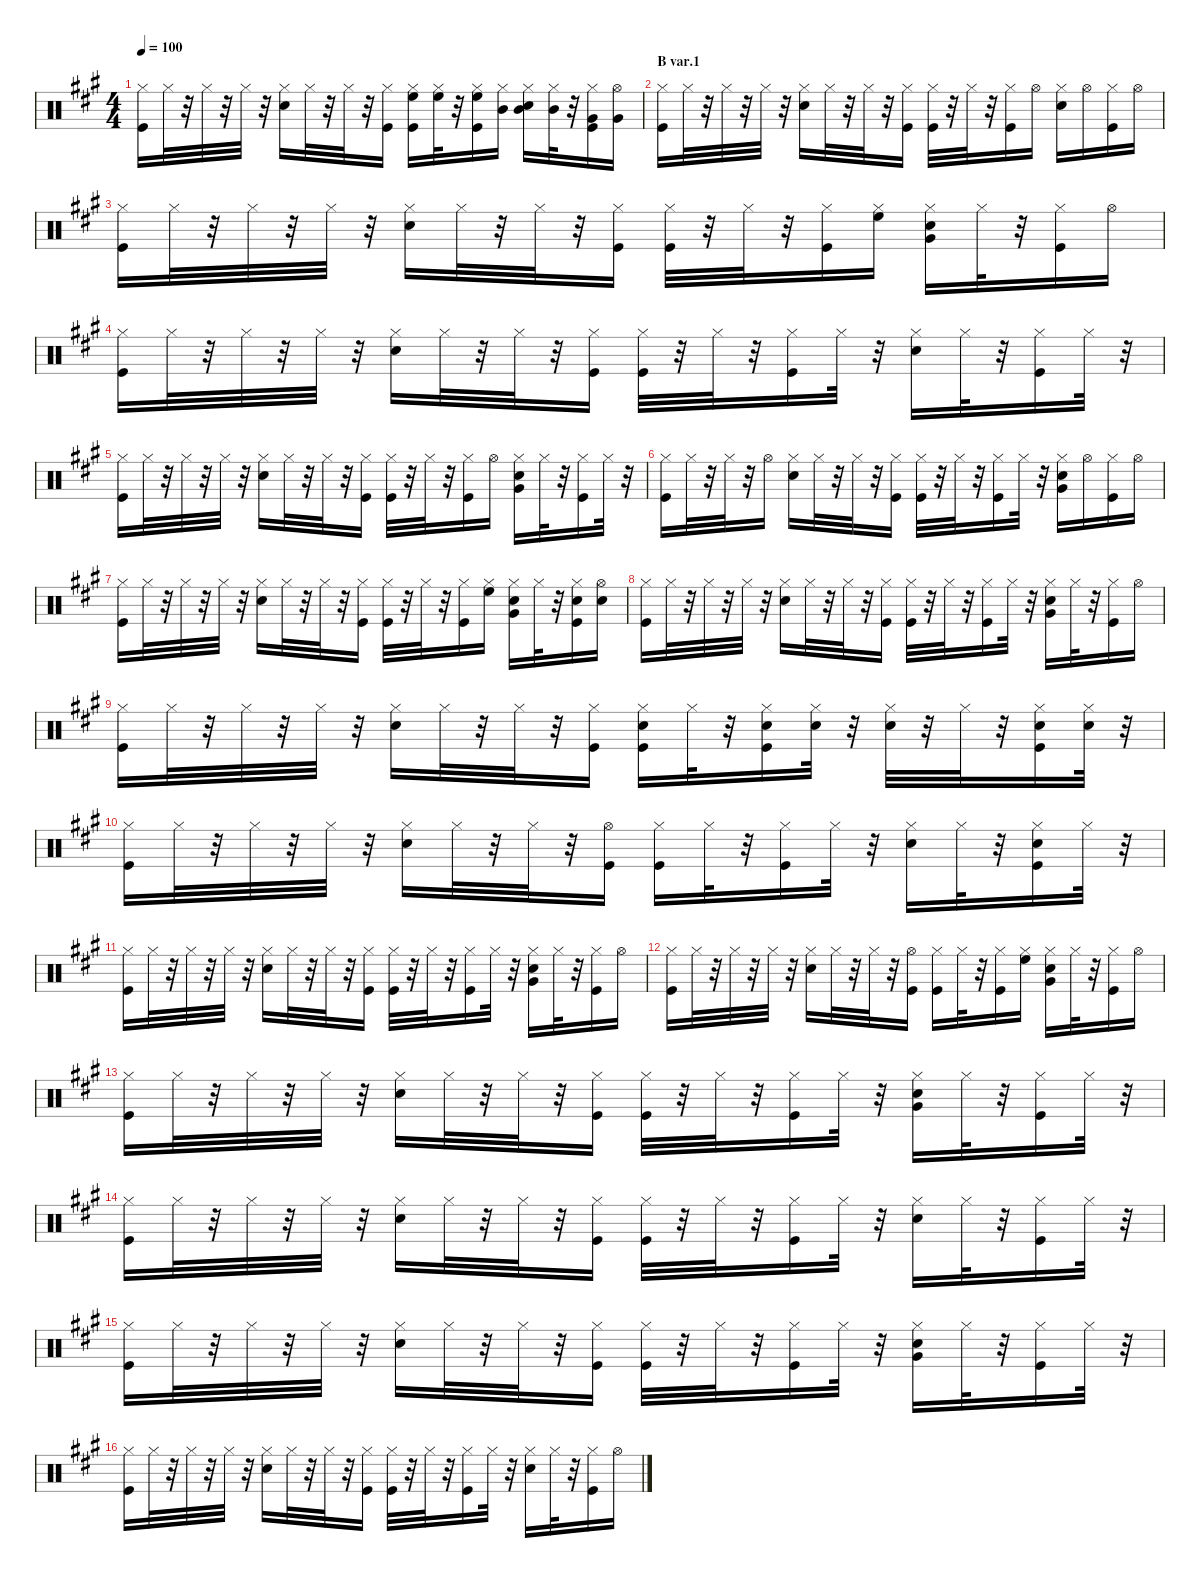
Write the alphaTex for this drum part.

\defaultSystemsLayout 4
\hideDynamics
\bracketExtendMode nobrackets
\singleTrackTrackNamePolicy hidden
\multiTrackTrackNamePolicy hidden
\otherSystemsTrackNameOrientation horizontal
\track ("Percussion" "drm.") {instrument percussion}
\staff {score}
\articulation defaults
\ts (4 4)
\tempo 100
\clef neutral
\ks a
("Kick (hit)"{acc forcenatural} "Hi-Hat (closed)"{acc forcenatural}).16{dy f beam Down} "Hi-Hat (closed)"{acc forcenatural}.32{dy mp beam Down} r.32{beam Down} "Hi-Hat (closed)"{acc forcenatural}.32{dy f beam Down} r.32{beam Down} "Hi-Hat (closed)"{acc forcenatural}.32{beam Down} r.32{beam Down} ("Snare (hit) 2"{acc forcenatural} "Hi-Hat (closed)"{acc forcenatural}).16{dy fff beam Down} "Hi-Hat (closed)"{acc forcenatural}.32{dy mp beam Down} r.32{beam Down} "Hi-Hat (closed)"{acc forcenatural}.32{dy f beam Down} r.32{beam Down} ("Kick (hit)"{acc forcenatural} "Hi-Hat (closed)"{acc forcenatural}).16{dy mf beam Down} ("Kick (hit)"{acc forcenatural} "Hi-Hat (closed)"{acc forcenatural} "High Floor Tom (hit)"{acc forcenatural}).16{dy f beam Down} ("Hi-Hat (closed)"{acc forcenatural} "High Floor Tom (hit)"{acc forcenatural}).32{dy mp beam Down} r.32{beam Down} ("Kick (hit)"{acc forcenatural} "Hi-Hat (closed)"{acc forcenatural} "High Floor Tom (hit)"{acc forcenatural}).16{dy f beam Down} ("Hi-Hat (closed)"{acc forcenatural} "Mid Tom (hit)"{acc forcenatural}).16{beam Down} ("Snare (hit) 2"{acc forcenatural} "Hi-Hat (closed)"{acc forcenatural} "Mid Tom (hit)"{acc forcenatural}).16{dy fff beam Down} ("Hi-Hat (closed)"{acc forcenatural} "Mid Tom (hit)"{acc forcenatural}).32{dy mp beam Down} r.32{beam Down} ("Kick (hit)"{acc forcenatural} "Hi-Hat (closed)"{acc forcenatural} "Very Low Tom (hit)"{acc forcenatural}).16{dy f beam Down} ("Very Low Tom (hit)"{acc forcenatural} "Hi-Hat (open)"{acc forcenatural}).16{beam Down} |
\section ("" "B var.1")
("Kick (hit)"{acc forcenatural} "Hi-Hat (closed)"{acc forcenatural}).16{beam Down} "Hi-Hat (closed)"{acc forcenatural}.32{dy mp beam Down} r.32{beam Down} "Hi-Hat (closed)"{acc forcenatural}.32{dy f beam Down} r.32{beam Down} "Hi-Hat (closed)"{acc forcenatural}.32{beam Down} r.32{beam Down} ("Snare (hit) 2"{acc forcenatural} "Hi-Hat (closed)"{acc forcenatural}).16{dy fff beam Down} "Hi-Hat (closed)"{acc forcenatural}.32{dy mp beam Down} r.32{beam Down} "Hi-Hat (closed)"{acc forcenatural}.32{dy f beam Down} r.32{beam Down} ("Kick (hit)"{acc forcenatural} "Hi-Hat (closed)"{acc forcenatural}).16{dy mf beam Down} ("Kick (hit)"{acc forcenatural} "Hi-Hat (closed)"{acc forcenatural}).32{dy f beam Down} r.32{beam Down} "Hi-Hat (closed)"{acc forcenatural}.32{dy mp beam Down} r.32{beam Down} ("Kick (hit)"{acc forcenatural} "Hi-Hat (closed)"{acc forcenatural}).16{dy f beam Down} "Hi-Hat (open)"{acc forcenatural}.16{beam Down} ("Snare (hit) 2"{acc forcenatural} "Hi-Hat (closed)"{acc forcenatural}).16{dy fff beam Down} "Hi-Hat (open)"{acc forcenatural}.16{dy mp beam Down} ("Kick (hit)"{acc forcenatural} "Hi-Hat (closed)"{acc forcenatural}).16{dy f beam Down} "Hi-Hat (open)"{acc forcenatural}.16{beam Down} |
("Kick (hit)"{acc forcenatural} "Hi-Hat (closed)"{acc forcenatural}).16{beam Down} "Hi-Hat (closed)"{acc forcenatural}.32{dy mp beam Down} r.32{beam Down} "Hi-Hat (closed)"{acc forcenatural}.32{dy f beam Down} r.32{beam Down} "Hi-Hat (closed)"{acc forcenatural}.32{beam Down} r.32{beam Down} ("Snare (hit) 2"{acc forcenatural} "Hi-Hat (closed)"{acc forcenatural}).16{dy fff beam Down} "Hi-Hat (closed)"{acc forcenatural}.32{dy mp beam Down} r.32{beam Down} "Hi-Hat (closed)"{acc forcenatural}.32{dy f beam Down} r.32{beam Down} ("Kick (hit)"{acc forcenatural} "Hi-Hat (closed)"{acc forcenatural}).16{dy mf beam Down} ("Kick (hit)"{acc forcenatural} "Hi-Hat (closed)"{acc forcenatural}).32{dy f beam Down} r.32{beam Down} "Hi-Hat (closed)"{acc forcenatural}.32{dy mp beam Down} r.32{beam Down} ("Kick (hit)"{acc forcenatural} "Hi-Hat (closed)"{acc forcenatural}).16{dy f beam Down} ("Hi-Hat (closed)"{acc forcenatural} "High Floor Tom (hit)"{acc forcenatural}).16{beam Down} ("Snare (hit) 2"{acc forcenatural} "Hi-Hat (closed)"{acc forcenatural} "Very Low Tom (hit)"{acc forcenatural}).16{dy fff beam Down} "Hi-Hat (closed)"{acc forcenatural}.32{dy mp beam Down} r.32{beam Down} ("Kick (hit)"{acc forcenatural} "Hi-Hat (closed)"{acc forcenatural}).16{dy f beam Down} "Hi-Hat (open)"{acc forcenatural}.16{beam Down} |
("Kick (hit)"{acc forcenatural} "Hi-Hat (closed)"{acc forcenatural}).16{beam Down} "Hi-Hat (closed)"{acc forcenatural}.32{dy mp beam Down} r.32{beam Down} "Hi-Hat (closed)"{acc forcenatural}.32{dy f beam Down} r.32{beam Down} "Hi-Hat (closed)"{acc forcenatural}.32{beam Down} r.32{beam Down} ("Snare (hit) 2"{acc forcenatural} "Hi-Hat (closed)"{acc forcenatural}).16{dy fff beam Down} "Hi-Hat (closed)"{acc forcenatural}.32{dy mp beam Down} r.32{beam Down} "Hi-Hat (closed)"{acc forcenatural}.32{dy f beam Down} r.32{beam Down} ("Kick (hit)"{acc forcenatural} "Hi-Hat (closed)"{acc forcenatural}).16{dy mf beam Down} ("Kick (hit)"{acc forcenatural} "Hi-Hat (closed)"{acc forcenatural}).32{dy f beam Down} r.32{beam Down} "Hi-Hat (closed)"{acc forcenatural}.32{dy mp beam Down} r.32{beam Down} ("Kick (hit)"{acc forcenatural} "Hi-Hat (closed)"{acc forcenatural}).16{dy f beam Down} "Hi-Hat (closed)"{acc forcenatural}.32{beam Down} r.32{beam Down} ("Snare (hit) 2"{acc forcenatural} "Hi-Hat (closed)"{acc forcenatural}).16{dy fff beam Down} "Hi-Hat (closed)"{acc forcenatural}.32{dy mp beam Down} r.32{beam Down} ("Kick (hit)"{acc forcenatural} "Hi-Hat (closed)"{acc forcenatural}).16{dy f beam Down} "Hi-Hat (closed)"{acc forcenatural}.32{beam Down} r.32{beam Down} |
("Kick (hit)"{acc forcenatural} "Hi-Hat (closed)"{acc forcenatural}).16{beam Down} "Hi-Hat (closed)"{acc forcenatural}.32{dy mp beam Down} r.32{beam Down} "Hi-Hat (closed)"{acc forcenatural}.32{dy f beam Down} r.32{beam Down} "Hi-Hat (closed)"{acc forcenatural}.32{beam Down} r.32{beam Down} ("Snare (hit) 2"{acc forcenatural} "Hi-Hat (closed)"{acc forcenatural}).16{dy fff beam Down} "Hi-Hat (closed)"{acc forcenatural}.32{dy mp beam Down} r.32{beam Down} "Hi-Hat (closed)"{acc forcenatural}.32{dy f beam Down} r.32{beam Down} ("Kick (hit)"{acc forcenatural} "Hi-Hat (closed)"{acc forcenatural}).16{dy mf beam Down} ("Kick (hit)"{acc forcenatural} "Hi-Hat (closed)"{acc forcenatural}).32{dy f beam Down} r.32{beam Down} "Hi-Hat (closed)"{acc forcenatural}.32{dy mp beam Down} r.32{beam Down} ("Kick (hit)"{acc forcenatural} "Hi-Hat (closed)"{acc forcenatural}).16{dy f beam Down} "Hi-Hat (open)"{acc forcenatural}.16{beam Down} ("Snare (hit) 2"{acc forcenatural} "Hi-Hat (closed)"{acc forcenatural} "Very Low Tom (hit)"{acc forcenatural}).16{dy fff beam Down} "Hi-Hat (closed)"{acc forcenatural}.32{dy mp beam Down} r.32{beam Down} ("Kick (hit)"{acc forcenatural} "Hi-Hat (closed)"{acc forcenatural}).16{dy f beam Down} "Hi-Hat (closed)"{acc forcenatural}.32{beam Down} r.32{beam Down} |
("Kick (hit)"{acc forcenatural} "Hi-Hat (closed)"{acc forcenatural}).16{beam Down} "Hi-Hat (closed)"{acc forcenatural}.32{dy mp beam Down} r.32{beam Down} "Hi-Hat (closed)"{acc forcenatural}.32{dy f beam Down} r.32{beam Down} "Hi-Hat (open)"{acc forcenatural}.16{beam Down} ("Snare (hit) 2"{acc forcenatural} "Hi-Hat (closed)"{acc forcenatural}).16{dy fff beam Down} "Hi-Hat (closed)"{acc forcenatural}.32{dy mp beam Down} r.32{beam Down} "Hi-Hat (closed)"{acc forcenatural}.32{dy f beam Down} r.32{beam Down} ("Kick (hit)"{acc forcenatural} "Hi-Hat (closed)"{acc forcenatural}).16{dy mf beam Down} ("Kick (hit)"{acc forcenatural} "Hi-Hat (closed)"{acc forcenatural}).32{dy f beam Down} r.32{beam Down} "Hi-Hat (closed)"{acc forcenatural}.32{dy mp beam Down} r.32{beam Down} ("Kick (hit)"{acc forcenatural} "Hi-Hat (closed)"{acc forcenatural}).16{dy f beam Down} "Hi-Hat (closed)"{acc forcenatural}.32{beam Down} r.32{beam Down} ("Snare (hit) 2"{acc forcenatural} "Hi-Hat (closed)"{acc forcenatural} "Very Low Tom (hit)"{acc forcenatural}).16{dy fff beam Down} "Hi-Hat (open)"{acc forcenatural}.16{dy mp beam Down} ("Kick (hit)"{acc forcenatural} "Hi-Hat (closed)"{acc forcenatural}).16{dy f beam Down} "Hi-Hat (open)"{acc forcenatural}.16{beam Down} |
("Kick (hit)"{acc forcenatural} "Hi-Hat (closed)"{acc forcenatural}).16{beam Down} "Hi-Hat (closed)"{acc forcenatural}.32{dy mp beam Down} r.32{beam Down} "Hi-Hat (closed)"{acc forcenatural}.32{dy f beam Down} r.32{beam Down} "Hi-Hat (closed)"{acc forcenatural}.32{beam Down} r.32{beam Down} ("Snare (hit) 2"{acc forcenatural} "Hi-Hat (closed)"{acc forcenatural}).16{dy fff beam Down} "Hi-Hat (closed)"{acc forcenatural}.32{dy mp beam Down} r.32{beam Down} "Hi-Hat (closed)"{acc forcenatural}.32{dy f beam Down} r.32{beam Down} ("Kick (hit)"{acc forcenatural} "Hi-Hat (closed)"{acc forcenatural}).16{dy mf beam Down} ("Kick (hit)"{acc forcenatural} "Hi-Hat (closed)"{acc forcenatural}).32{dy f beam Down} r.32{beam Down} "Hi-Hat (closed)"{acc forcenatural}.32{dy mp beam Down} r.32{beam Down} ("Kick (hit)"{acc forcenatural} "Hi-Hat (closed)"{acc forcenatural}).16{dy f beam Down} ("Hi-Hat (closed)"{acc forcenatural} "High Floor Tom (hit)"{acc forcenatural}).16{beam Down} ("Snare (hit) 2"{acc forcenatural} "Hi-Hat (closed)"{acc forcenatural} "Very Low Tom (hit)"{acc forcenatural}).16{dy fff beam Down} "Hi-Hat (closed)"{acc forcenatural}.32{dy mp beam Down} r.32{beam Down} ("Kick (hit)"{acc forcenatural} "Snare (hit) 2"{acc forcenatural} "Hi-Hat (closed)"{acc forcenatural}).16{dy f beam Down} ("Snare (hit) 2"{acc forcenatural} "Hi-Hat (open)"{acc forcenatural}).16{beam Down} |
("Kick (hit)"{acc forcenatural} "Hi-Hat (closed)"{acc forcenatural}).16{beam Down} "Hi-Hat (closed)"{acc forcenatural}.32{dy mp beam Down} r.32{beam Down} "Hi-Hat (closed)"{acc forcenatural}.32{dy f beam Down} r.32{beam Down} "Hi-Hat (closed)"{acc forcenatural}.32{beam Down} r.32{beam Down} ("Snare (hit) 2"{acc forcenatural} "Hi-Hat (closed)"{acc forcenatural}).16{dy fff beam Down} "Hi-Hat (closed)"{acc forcenatural}.32{dy mp beam Down} r.32{beam Down} "Hi-Hat (closed)"{acc forcenatural}.32{dy f beam Down} r.32{beam Down} ("Kick (hit)"{acc forcenatural} "Hi-Hat (closed)"{acc forcenatural}).16{dy mf beam Down} ("Kick (hit)"{acc forcenatural} "Hi-Hat (closed)"{acc forcenatural}).32{dy f beam Down} r.32{beam Down} "Hi-Hat (closed)"{acc forcenatural}.32{dy mp beam Down} r.32{beam Down} ("Kick (hit)"{acc forcenatural} "Hi-Hat (closed)"{acc forcenatural}).16{dy f beam Down} "Hi-Hat (closed)"{acc forcenatural}.32{beam Down} r.32{beam Down} ("Snare (hit) 2"{acc forcenatural} "Hi-Hat (closed)"{acc forcenatural} "Very Low Tom (hit)"{acc forcenatural}).16{dy fff beam Down} "Hi-Hat (closed)"{acc forcenatural}.32{dy mp beam Down} r.32{beam Down} ("Kick (hit)"{acc forcenatural} "Hi-Hat (closed)"{acc forcenatural}).16{dy f beam Down} "Hi-Hat (open)"{acc forcenatural}.16{beam Down} |
("Kick (hit)"{acc forcenatural} "Hi-Hat (closed)"{acc forcenatural}).16{beam Down} "Hi-Hat (closed)"{acc forcenatural}.32{dy mp beam Down} r.32{beam Down} "Hi-Hat (closed)"{acc forcenatural}.32{dy f beam Down} r.32{beam Down} "Hi-Hat (closed)"{acc forcenatural}.32{beam Down} r.32{beam Down} ("Snare (hit) 2"{acc forcenatural} "Hi-Hat (closed)"{acc forcenatural}).16{dy fff beam Down} "Hi-Hat (closed)"{acc forcenatural}.32{dy mp beam Down} r.32{beam Down} "Hi-Hat (closed)"{acc forcenatural}.32{dy f beam Down} r.32{beam Down} ("Kick (hit)"{acc forcenatural} "Hi-Hat (closed)"{acc forcenatural}).16{dy mf beam Down} ("Kick (hit)"{acc forcenatural} "Snare (hit) 2"{acc forcenatural} "Hi-Hat (closed)"{acc forcenatural}).16{dy f beam Down} "Hi-Hat (closed)"{acc forcenatural}.32{dy mp beam Down} r.32{beam Down} ("Kick (hit)"{acc forcenatural} "Snare (hit) 2"{acc forcenatural} "Hi-Hat (closed)"{acc forcenatural}).16{dy f beam Down} ("Snare (hit) 2"{acc forcenatural} "Hi-Hat (closed)"{acc forcenatural}).32{beam Down} r.32{beam Down} ("Snare (hit) 2"{acc forcenatural} "Hi-Hat (closed)"{acc forcenatural}).32{dy fff beam Down} r.32{beam Down} "Hi-Hat (closed)"{acc forcenatural}.32{dy mp beam Down} r.32{beam Down} ("Kick (hit)"{acc forcenatural} "Snare (hit) 2"{acc forcenatural} "Hi-Hat (closed)"{acc forcenatural}).16{dy f beam Down} ("Snare (hit) 2"{acc forcenatural} "Hi-Hat (closed)"{acc forcenatural}).32{dy ff beam Down} r.32{beam Down} |
("Kick (hit)"{acc forcenatural} "Hi-Hat (closed)"{acc forcenatural}).16{dy f beam Down} "Hi-Hat (closed)"{acc forcenatural}.32{dy mp beam Down} r.32{beam Down} "Hi-Hat (closed)"{acc forcenatural}.32{dy f beam Down} r.32{beam Down} "Hi-Hat (closed)"{acc forcenatural}.32{beam Down} r.32{beam Down} ("Snare (hit) 2"{acc forcenatural} "Hi-Hat (closed)"{acc forcenatural}).16{dy fff beam Down} "Hi-Hat (closed)"{acc forcenatural}.32{dy mp beam Down} r.32{beam Down} "Hi-Hat (closed)"{acc forcenatural}.32{dy f beam Down} r.32{beam Down} ("Kick (hit)"{acc forcenatural} "Hi-Hat (open)"{acc forcenatural}).16{dy mf beam Down} ("Kick (hit)"{acc forcenatural} "Hi-Hat (closed)"{acc forcenatural}).16{dy f beam Down} "Hi-Hat (closed)"{acc forcenatural}.32{dy mp beam Down} r.32{beam Down} ("Kick (hit)"{acc forcenatural} "Hi-Hat (closed)"{acc forcenatural}).16{dy f beam Down} "Hi-Hat (closed)"{acc forcenatural}.32{beam Down} r.32{beam Down} ("Snare (hit) 2"{acc forcenatural} "Hi-Hat (closed)"{acc forcenatural}).16{dy fff beam Down} "Hi-Hat (closed)"{acc forcenatural}.32{dy mp beam Down} r.32{beam Down} ("Kick (hit)"{acc forcenatural} "Snare (hit) 2"{acc forcenatural} "Hi-Hat (closed)"{acc forcenatural}).16{dy f beam Down} "Hi-Hat (closed)"{acc forcenatural}.32{beam Down} r.32{beam Down} |
("Kick (hit)"{acc forcenatural} "Hi-Hat (closed)"{acc forcenatural}).16{beam Down} "Hi-Hat (closed)"{acc forcenatural}.32{dy mp beam Down} r.32{beam Down} "Hi-Hat (closed)"{acc forcenatural}.32{dy f beam Down} r.32{beam Down} "Hi-Hat (closed)"{acc forcenatural}.32{beam Down} r.32{beam Down} ("Snare (hit) 2"{acc forcenatural} "Hi-Hat (closed)"{acc forcenatural}).16{dy fff beam Down} "Hi-Hat (closed)"{acc forcenatural}.32{dy mp beam Down} r.32{beam Down} "Hi-Hat (closed)"{acc forcenatural}.32{dy f beam Down} r.32{beam Down} ("Kick (hit)"{acc forcenatural} "Hi-Hat (closed)"{acc forcenatural}).16{dy mf beam Down} ("Kick (hit)"{acc forcenatural} "Hi-Hat (closed)"{acc forcenatural}).32{dy f beam Down} r.32{beam Down} "Hi-Hat (closed)"{acc forcenatural}.32{dy mp beam Down} r.32{beam Down} ("Kick (hit)"{acc forcenatural} "Hi-Hat (closed)"{acc forcenatural}).16{dy f beam Down} "Hi-Hat (closed)"{acc forcenatural}.32{beam Down} r.32{beam Down} ("Snare (hit) 2"{acc forcenatural} "Hi-Hat (closed)"{acc forcenatural} "Very Low Tom (hit)"{acc forcenatural}).16{dy fff beam Down} "Hi-Hat (closed)"{acc forcenatural}.32{dy mp beam Down} r.32{beam Down} ("Kick (hit)"{acc forcenatural} "Hi-Hat (closed)"{acc forcenatural}).16{dy f beam Down} "Hi-Hat (open)"{acc forcenatural}.16{beam Down} |
("Kick (hit)"{acc forcenatural} "Hi-Hat (closed)"{acc forcenatural}).16{beam Down} "Hi-Hat (closed)"{acc forcenatural}.32{dy mp beam Down} r.32{beam Down} "Hi-Hat (closed)"{acc forcenatural}.32{dy f beam Down} r.32{beam Down} "Hi-Hat (closed)"{acc forcenatural}.32{beam Down} r.32{beam Down} ("Snare (hit) 2"{acc forcenatural} "Hi-Hat (closed)"{acc forcenatural}).16{dy fff beam Down} "Hi-Hat (closed)"{acc forcenatural}.32{dy mp beam Down} r.32{beam Down} "Hi-Hat (closed)"{acc forcenatural}.32{dy f beam Down} r.32{beam Down} ("Kick (hit)"{acc forcenatural} "Hi-Hat (open)"{acc forcenatural}).16{dy mf beam Down} ("Kick (hit)"{acc forcenatural} "Hi-Hat (closed)"{acc forcenatural}).16{dy f beam Down} "Hi-Hat (closed)"{acc forcenatural}.32{dy mp beam Down} r.32{beam Down} ("Kick (hit)"{acc forcenatural} "Hi-Hat (closed)"{acc forcenatural}).16{dy f beam Down} ("Hi-Hat (closed)"{acc forcenatural} "High Floor Tom (hit)"{acc forcenatural}).16{beam Down} ("Snare (hit) 2"{acc forcenatural} "Hi-Hat (closed)"{acc forcenatural} "Very Low Tom (hit)"{acc forcenatural}).16{dy fff beam Down} "Hi-Hat (closed)"{acc forcenatural}.32{dy mp beam Down} r.32{beam Down} ("Kick (hit)"{acc forcenatural} "Hi-Hat (closed)"{acc forcenatural}).16{dy f beam Down} "Hi-Hat (open)"{acc forcenatural}.16{beam Down} |
("Kick (hit)"{acc forcenatural} "Hi-Hat (closed)"{acc forcenatural}).16{beam Down} "Hi-Hat (closed)"{acc forcenatural}.32{dy mp beam Down} r.32{beam Down} "Hi-Hat (closed)"{acc forcenatural}.32{dy f beam Down} r.32{beam Down} "Hi-Hat (closed)"{acc forcenatural}.32{beam Down} r.32{beam Down} ("Snare (hit) 2"{acc forcenatural} "Hi-Hat (closed)"{acc forcenatural}).16{dy fff beam Down} "Hi-Hat (closed)"{acc forcenatural}.32{dy mp beam Down} r.32{beam Down} "Hi-Hat (closed)"{acc forcenatural}.32{dy f beam Down} r.32{beam Down} ("Kick (hit)"{acc forcenatural} "Hi-Hat (closed)"{acc forcenatural}).16{dy mf beam Down} ("Kick (hit)"{acc forcenatural} "Hi-Hat (closed)"{acc forcenatural}).32{dy f beam Down} r.32{beam Down} "Hi-Hat (closed)"{acc forcenatural}.32{dy mp beam Down} r.32{beam Down} ("Kick (hit)"{acc forcenatural} "Hi-Hat (closed)"{acc forcenatural}).16{dy f beam Down} "Hi-Hat (closed)"{acc forcenatural}.32{beam Down} r.32{beam Down} ("Snare (hit) 2"{acc forcenatural} "Hi-Hat (closed)"{acc forcenatural} "Very Low Tom (hit)"{acc forcenatural}).16{dy fff beam Down} "Hi-Hat (closed)"{acc forcenatural}.32{dy mp beam Down} r.32{beam Down} ("Kick (hit)"{acc forcenatural} "Hi-Hat (closed)"{acc forcenatural}).16{dy f beam Down} "Hi-Hat (closed)"{acc forcenatural}.32{beam Down} r.32{beam Down} |
("Kick (hit)"{acc forcenatural} "Hi-Hat (closed)"{acc forcenatural}).16{beam Down} "Hi-Hat (closed)"{acc forcenatural}.32{dy mp beam Down} r.32{beam Down} "Hi-Hat (closed)"{acc forcenatural}.32{dy f beam Down} r.32{beam Down} "Hi-Hat (closed)"{acc forcenatural}.32{beam Down} r.32{beam Down} ("Snare (hit) 2"{acc forcenatural} "Hi-Hat (closed)"{acc forcenatural}).16{dy fff beam Down} "Hi-Hat (closed)"{acc forcenatural}.32{dy mp beam Down} r.32{beam Down} "Hi-Hat (closed)"{acc forcenatural}.32{dy f beam Down} r.32{beam Down} ("Kick (hit)"{acc forcenatural} "Hi-Hat (closed)"{acc forcenatural}).16{dy mf beam Down} ("Kick (hit)"{acc forcenatural} "Hi-Hat (closed)"{acc forcenatural}).32{dy f beam Down} r.32{beam Down} "Hi-Hat (closed)"{acc forcenatural}.32{dy mp beam Down} r.32{beam Down} ("Kick (hit)"{acc forcenatural} "Hi-Hat (closed)"{acc forcenatural}).16{dy f beam Down} "Hi-Hat (closed)"{acc forcenatural}.32{beam Down} r.32{beam Down} ("Snare (hit) 2"{acc forcenatural} "Hi-Hat (closed)"{acc forcenatural}).16{dy fff beam Down} "Hi-Hat (closed)"{acc forcenatural}.32{dy mp beam Down} r.32{beam Down} ("Kick (hit)"{acc forcenatural} "Hi-Hat (closed)"{acc forcenatural}).16{dy f beam Down} "Hi-Hat (closed)"{acc forcenatural}.32{beam Down} r.32{beam Down} |
("Kick (hit)"{acc forcenatural} "Hi-Hat (closed)"{acc forcenatural}).16{beam Down} "Hi-Hat (closed)"{acc forcenatural}.32{dy mp beam Down} r.32{beam Down} "Hi-Hat (closed)"{acc forcenatural}.32{dy f beam Down} r.32{beam Down} "Hi-Hat (closed)"{acc forcenatural}.32{beam Down} r.32{beam Down} ("Snare (hit) 2"{acc forcenatural} "Hi-Hat (closed)"{acc forcenatural}).16{dy fff beam Down} "Hi-Hat (closed)"{acc forcenatural}.32{dy mp beam Down} r.32{beam Down} "Hi-Hat (closed)"{acc forcenatural}.32{dy f beam Down} r.32{beam Down} ("Kick (hit)"{acc forcenatural} "Hi-Hat (closed)"{acc forcenatural}).16{dy mf beam Down} ("Kick (hit)"{acc forcenatural} "Hi-Hat (closed)"{acc forcenatural}).32{dy f beam Down} r.32{beam Down} "Hi-Hat (closed)"{acc forcenatural}.32{dy mp beam Down} r.32{beam Down} ("Kick (hit)"{acc forcenatural} "Hi-Hat (closed)"{acc forcenatural}).16{dy f beam Down} "Hi-Hat (closed)"{acc forcenatural}.32{beam Down} r.32{beam Down} ("Snare (hit) 2"{acc forcenatural} "Hi-Hat (closed)"{acc forcenatural} "Very Low Tom (hit)"{acc forcenatural}).16{dy fff beam Down} "Hi-Hat (closed)"{acc forcenatural}.32{dy mp beam Down} r.32{beam Down} ("Kick (hit)"{acc forcenatural} "Hi-Hat (closed)"{acc forcenatural}).16{dy f beam Down} "Hi-Hat (closed)"{acc forcenatural}.32{beam Down} r.32{beam Down} |
("Kick (hit)"{acc forcenatural} "Hi-Hat (closed)"{acc forcenatural}).16{beam Down} "Hi-Hat (closed)"{acc forcenatural}.32{dy mp beam Down} r.32{beam Down} "Hi-Hat (closed)"{acc forcenatural}.32{dy f beam Down} r.32{beam Down} "Hi-Hat (closed)"{acc forcenatural}.32{beam Down} r.32{beam Down} ("Snare (hit) 2"{acc forcenatural} "Hi-Hat (closed)"{acc forcenatural}).16{dy fff beam Down} "Hi-Hat (closed)"{acc forcenatural}.32{dy mp beam Down} r.32{beam Down} "Hi-Hat (closed)"{acc forcenatural}.32{dy f beam Down} r.32{beam Down} ("Kick (hit)"{acc forcenatural} "Hi-Hat (closed)"{acc forcenatural}).16{dy mf beam Down} ("Kick (hit)"{acc forcenatural} "Hi-Hat (closed)"{acc forcenatural}).32{dy f beam Down} r.32{beam Down} "Hi-Hat (closed)"{acc forcenatural}.32{dy mp beam Down} r.32{beam Down} ("Kick (hit)"{acc forcenatural} "Hi-Hat (closed)"{acc forcenatural}).16{dy f beam Down} "Hi-Hat (closed)"{acc forcenatural}.32{beam Down} r.32{beam Down} ("Snare (hit) 2"{acc forcenatural} "Hi-Hat (closed)"{acc forcenatural}).16{dy fff beam Down} "Hi-Hat (closed)"{acc forcenatural}.32{dy mp beam Down} r.32{beam Down} ("Kick (hit)"{acc forcenatural} "Hi-Hat (closed)"{acc forcenatural}).16{dy f beam Down} "Hi-Hat (open)"{acc forcenatural}.16{beam Down}
